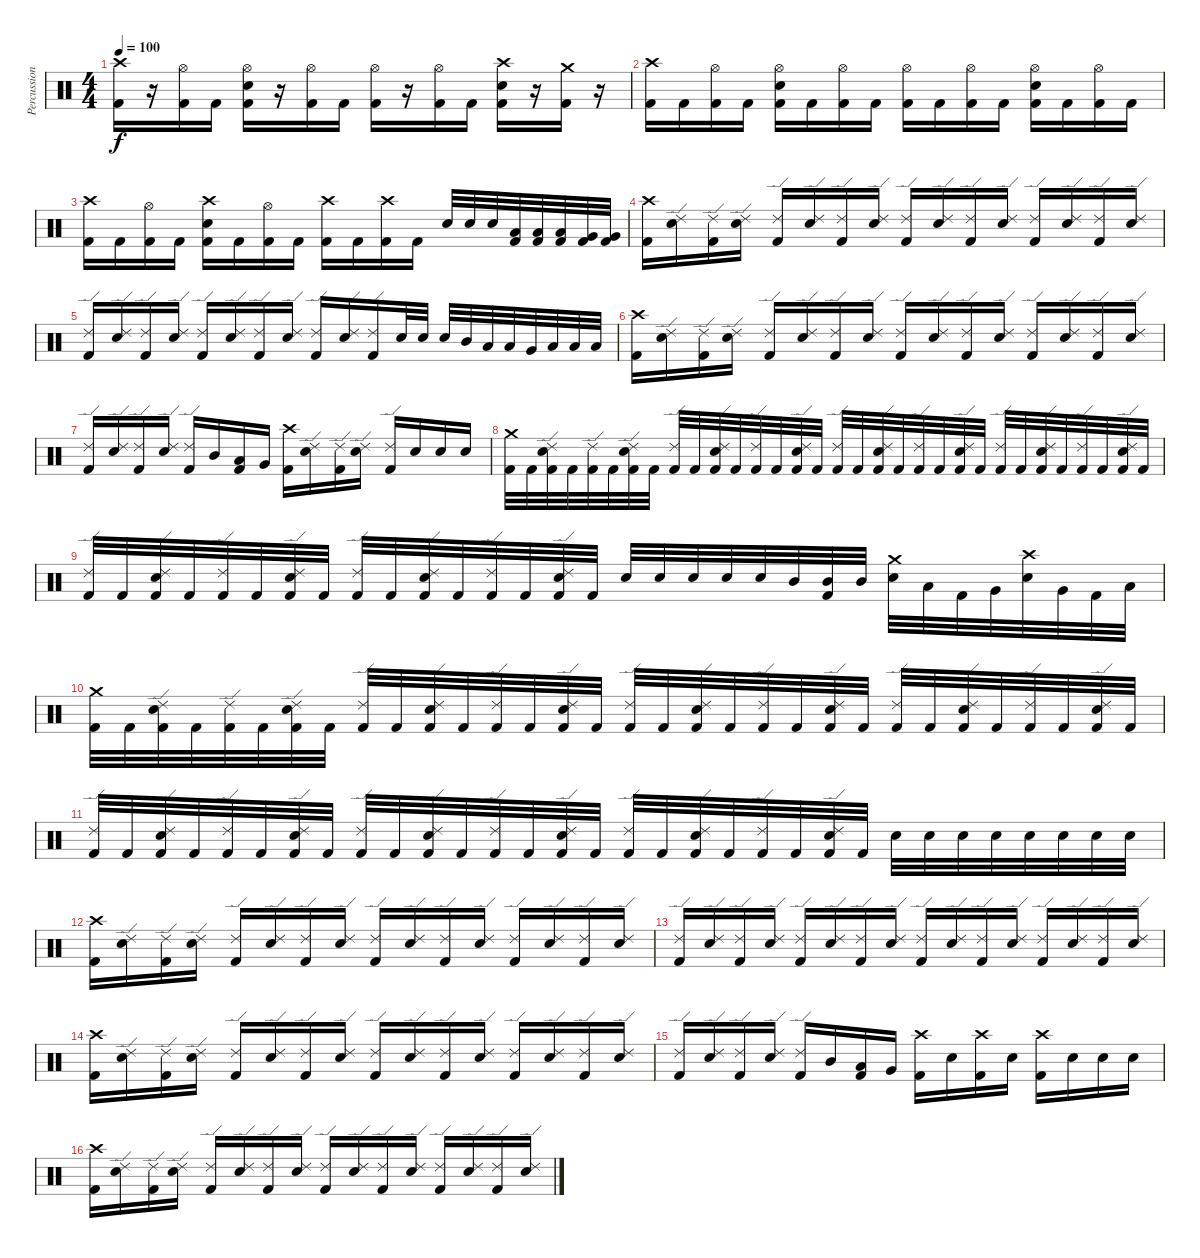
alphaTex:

\track ("Percussion" "Percussion") {instrument percussion}
\staff {score}
\articulation defaults
\ts (4 4)
\tempo 100
\clef neutral
\ks c
("Crash high (hit)" "Kick (hit) 2").16{dy f} r.16 ("Hi-Hat (open)" "Kick (hit) 2").16 "Kick (hit) 2".16 ("Hi-Hat (open)" "Snare (hit) 2" "Kick (hit) 2").16 r.16 ("Hi-Hat (open)" "Kick (hit) 2").16 "Kick (hit) 2".16 ("Hi-Hat (open)" "Kick (hit) 2").16 r.16 ("Hi-Hat (open)" "Kick (hit) 2").16 "Kick (hit) 2".16 ("Crash high (hit)" "Snare (hit) 2" "Kick (hit) 2").16 r.16 ("Crash medium (hit)" "Kick (hit) 2").16 r.16 |
("Crash high (hit)" "Kick (hit) 2").16 "Kick (hit) 2".16 ("Hi-Hat (open)" "Kick (hit) 2").16 "Kick (hit) 2".16 ("Hi-Hat (open)" "Snare (hit) 2" "Kick (hit) 2").16 "Kick (hit) 2".16 ("Hi-Hat (open)" "Kick (hit) 2").16 "Kick (hit) 2".16 ("Hi-Hat (open)" "Kick (hit) 2").16 "Kick (hit) 2".16 ("Hi-Hat (open)" "Kick (hit) 2").16 "Kick (hit) 2".16 ("Hi-Hat (open)" "Snare (hit) 2" "Kick (hit) 2").16 "Kick (hit) 2".16 ("Hi-Hat (open)" "Kick (hit) 2").16 "Kick (hit) 2".16 |
("Crash high (hit)" "Kick (hit) 2").16 "Kick (hit) 2".16 ("Hi-Hat (open)" "Kick (hit) 2").16 "Kick (hit) 2".16 ("Crash high (hit)" "Snare (hit) 2" "Kick (hit) 2").16 "Kick (hit) 2".16 ("Hi-Hat (open)" "Kick (hit) 2").16 "Kick (hit) 2".16 ("Crash high (hit)" "Kick (hit) 2").16 "Kick (hit) 2".16 ("Crash high (hit)" "Kick (hit) 2").16 "Kick (hit) 2".16 "Snare (hit) 2".32 "Snare (hit) 2".32 "Snare (hit) 2".32 ("Low Tom (hit)" "Kick (hit) 2").32 ("Low Tom (hit)" "Kick (hit) 2").32 ("Low Tom (hit)" "Kick (hit) 2").32 ("Very Low Tom (hit)" "Kick (hit) 2").32 ("Very Low Tom (hit)" "Kick (hit) 2").32 |
("Crash high (hit)" "Kick (hit) 2").16 ("Ride (edge) 2" "Snare (hit) 2").16 ("Ride (edge) 2" "Kick (hit) 2").16 ("Ride (edge) 2" "Snare (hit) 2").16 ("Ride (edge) 2" "Kick (hit) 2").16 ("Ride (edge) 2" "Snare (hit) 2").16 ("Ride (edge) 2" "Kick (hit) 2").16 ("Ride (edge) 2" "Snare (hit) 2").16 ("Ride (edge) 2" "Kick (hit) 2").16 ("Ride (edge) 2" "Snare (hit) 2").16 ("Ride (edge) 2" "Kick (hit) 2").16 ("Ride (edge) 2" "Snare (hit) 2").16 ("Ride (edge) 2" "Kick (hit) 2").16 ("Ride (edge) 2" "Snare (hit) 2").16 ("Ride (edge) 2" "Kick (hit) 2").16 ("Ride (edge) 2" "Snare (hit) 2").16 |
("Ride (edge) 2" "Kick (hit) 2").16 ("Ride (edge) 2" "Snare (hit) 2").16 ("Ride (edge) 2" "Kick (hit) 2").16 ("Ride (edge) 2" "Snare (hit) 2").16 ("Ride (edge) 2" "Kick (hit) 2").16 ("Ride (edge) 2" "Snare (hit) 2").16 ("Ride (edge) 2" "Kick (hit) 2").16 ("Ride (edge) 2" "Snare (hit) 2").16 ("Ride (edge) 2" "Kick (hit) 2").16 ("Ride (edge) 2" "Snare (hit) 2").16 ("Ride (edge) 2" "Kick (hit) 2").16 "Snare (hit) 2".32 "Snare (hit) 2".32 "Snare (hit) 2".32 "Mid Tom (hit)".32 "Low Tom (hit)".32 "Low Tom (hit)".32 "Very Low Tom (hit)".32 "Low Floor Tom (hit)".32 "Low Floor Tom (hit)".32 "Low Floor Tom (hit)".32 |
("Crash high (hit)" "Kick (hit) 2").16 ("Ride (edge) 2" "Snare (hit) 2").16 ("Ride (edge) 2" "Kick (hit) 2").16 ("Ride (edge) 2" "Snare (hit) 2").16 ("Ride (edge) 2" "Kick (hit) 2").16 ("Ride (edge) 2" "Snare (hit) 2").16 ("Ride (edge) 2" "Kick (hit) 2").16 ("Ride (edge) 2" "Snare (hit) 2").16 ("Ride (edge) 2" "Kick (hit) 2").16 ("Ride (edge) 2" "Snare (hit) 2").16 ("Ride (edge) 2" "Kick (hit) 2").16 ("Ride (edge) 2" "Snare (hit) 2").16 ("Ride (edge) 2" "Kick (hit) 2").16 ("Ride (edge) 2" "Snare (hit) 2").16 ("Ride (edge) 2" "Kick (hit) 2").16 ("Ride (edge) 2" "Snare (hit) 2").16 |
("Ride (edge) 2" "Kick (hit) 2").16 ("Ride (edge) 2" "Snare (hit) 2").16 ("Ride (edge) 2" "Kick (hit) 2").16 ("Ride (edge) 2" "Snare (hit) 2").16 ("Ride (edge) 2" "Kick (hit) 2").16 "Mid Tom (hit)".16 ("Low Tom (hit)" "Kick (hit) 2").16 "Very Low Tom (hit)".16 ("Crash high (hit)" "Kick (hit) 2").16 ("Ride (edge) 2" "Snare (hit) 2").16 ("Ride (edge) 2" "Kick (hit) 2").16 ("Ride (edge) 2" "Snare (hit) 2").16 ("Ride (edge) 2" "Kick (hit) 2").16 "Snare (hit) 2".16 "Snare (hit) 2".16 "Snare (hit) 2".16 |
("Crash medium (hit)" "Kick (hit) 2").32 "Kick (hit) 2".32 ("Ride (edge) 2" "Snare (hit) 2" "Kick (hit) 2").32 "Kick (hit) 2".32 ("Ride (edge) 2" "Kick (hit) 2").32 "Kick (hit) 2".32 ("Ride (edge) 2" "Snare (hit) 2" "Kick (hit) 2").32 "Kick (hit) 2".32 ("Ride (edge) 2" "Kick (hit) 2").32 "Kick (hit) 2".32 ("Ride (edge) 2" "Snare (hit) 2" "Kick (hit) 2").32 "Kick (hit) 2".32 ("Ride (edge) 2" "Kick (hit) 2").32 "Kick (hit) 2".32 ("Ride (edge) 2" "Snare (hit) 2" "Kick (hit) 2").32 "Kick (hit) 2".32 ("Ride (edge) 2" "Kick (hit) 2").32 "Kick (hit) 2".32 ("Ride (edge) 2" "Snare (hit) 2" "Kick (hit) 2").32 "Kick (hit) 2".32 ("Ride (edge) 2" "Kick (hit) 2").32 "Kick (hit) 2".32 ("Ride (edge) 2" "Snare (hit) 2" "Kick (hit) 2").32 "Kick (hit) 2".32 ("Ride (edge) 2" "Kick (hit) 2").32 "Kick (hit) 2".32 ("Ride (edge) 2" "Snare (hit) 2" "Kick (hit) 2").32 "Kick (hit) 2".32 ("Ride (edge) 2" "Kick (hit) 2").32 "Kick (hit) 2".32 ("Ride (edge) 2" "Snare (hit) 2" "Kick (hit) 2").32 "Kick (hit) 2".32 |
("Ride (edge) 2" "Kick (hit) 2").32 "Kick (hit) 2".32 ("Ride (edge) 2" "Snare (hit) 2" "Kick (hit) 2").32 "Kick (hit) 2".32 ("Ride (edge) 2" "Kick (hit) 2").32 "Kick (hit) 2".32 ("Ride (edge) 2" "Snare (hit) 2" "Kick (hit) 2").32 "Kick (hit) 2".32 ("Ride (edge) 2" "Kick (hit) 2").32 "Kick (hit) 2".32 ("Ride (edge) 2" "Snare (hit) 2" "Kick (hit) 2").32 "Kick (hit) 2".32 ("Ride (edge) 2" "Kick (hit) 2").32 "Kick (hit) 2".32 ("Ride (edge) 2" "Snare (hit) 2" "Kick (hit) 2").32 "Kick (hit) 2".32 "Snare (hit) 2".32 "Snare (hit) 2".32 "Snare (hit) 2".32 "Snare (hit) 2".32 "Snare (hit) 2".32 "Mid Tom (hit)".32 ("Mid Tom (hit)" "Kick (hit) 2").32 "Mid Tom (hit)".32 ("Crash medium (hit)" "Snare (hit) 2").32 "Low Tom (hit)".32 "Kick (hit) 2".32 "Very Low Tom (hit)".32 ("Crash high (hit)" "Snare (hit) 2").32 "Very Low Tom (hit)".32 "Kick (hit) 2".32 "Low Floor Tom (hit)".32 |
("Crash medium (hit)" "Kick (hit) 2").32 "Kick (hit) 2".32 ("Ride (edge) 2" "Snare (hit) 2" "Kick (hit) 2").32 "Kick (hit) 2".32 ("Ride (edge) 2" "Kick (hit) 2").32 "Kick (hit) 2".32 ("Ride (edge) 2" "Snare (hit) 2" "Kick (hit) 2").32 "Kick (hit) 2".32 ("Ride (edge) 2" "Kick (hit) 2").32 "Kick (hit) 2".32 ("Ride (edge) 2" "Snare (hit) 2" "Kick (hit) 2").32 "Kick (hit) 2".32 ("Ride (edge) 2" "Kick (hit) 2").32 "Kick (hit) 2".32 ("Ride (edge) 2" "Snare (hit) 2" "Kick (hit) 2").32 "Kick (hit) 2".32 ("Ride (edge) 2" "Kick (hit) 2").32 "Kick (hit) 2".32 ("Ride (edge) 2" "Snare (hit) 2" "Kick (hit) 2").32 "Kick (hit) 2".32 ("Ride (edge) 2" "Kick (hit) 2").32 "Kick (hit) 2".32 ("Ride (edge) 2" "Snare (hit) 2" "Kick (hit) 2").32 "Kick (hit) 2".32 ("Ride (edge) 2" "Kick (hit) 2").32 "Kick (hit) 2".32 ("Ride (edge) 2" "Snare (hit) 2" "Kick (hit) 2").32 "Kick (hit) 2".32 ("Ride (edge) 2" "Kick (hit) 2").32 "Kick (hit) 2".32 ("Ride (edge) 2" "Snare (hit) 2" "Kick (hit) 2").32 "Kick (hit) 2".32 |
("Ride (edge) 2" "Kick (hit) 2").32 "Kick (hit) 2".32 ("Ride (edge) 2" "Snare (hit) 2" "Kick (hit) 2").32 "Kick (hit) 2".32 ("Ride (edge) 2" "Kick (hit) 2").32 "Kick (hit) 2".32 ("Ride (edge) 2" "Snare (hit) 2" "Kick (hit) 2").32 "Kick (hit) 2".32 ("Ride (edge) 2" "Kick (hit) 2").32 "Kick (hit) 2".32 ("Ride (edge) 2" "Snare (hit) 2" "Kick (hit) 2").32 "Kick (hit) 2".32 ("Ride (edge) 2" "Kick (hit) 2").32 "Kick (hit) 2".32 ("Ride (edge) 2" "Snare (hit) 2" "Kick (hit) 2").32 "Kick (hit) 2".32 ("Ride (edge) 2" "Kick (hit) 2").32 "Kick (hit) 2".32 ("Ride (edge) 2" "Snare (hit) 2" "Kick (hit) 2").32 "Kick (hit) 2".32 ("Ride (edge) 2" "Kick (hit) 2").32 "Kick (hit) 2".32 ("Ride (edge) 2" "Snare (hit) 2" "Kick (hit) 2").32 "Kick (hit) 2".32 "Snare (hit) 2".32 "Snare (hit) 2".32 "Snare (hit) 2".32 "Snare (hit) 2".32 "Snare (hit) 2".32 "Snare (hit) 2".32 "Snare (hit) 2".32 "Snare (hit) 2".32 |
("Crash high (hit)" "Kick (hit) 2").16 ("Ride (edge) 2" "Snare (hit) 2").16 ("Ride (edge) 2" "Kick (hit) 2").16 ("Ride (edge) 2" "Snare (hit) 2").16 ("Ride (edge) 2" "Kick (hit) 2").16 ("Ride (edge) 2" "Snare (hit) 2").16 ("Ride (edge) 2" "Kick (hit) 2").16 ("Ride (edge) 2" "Snare (hit) 2").16 ("Ride (edge) 2" "Kick (hit) 2").16 ("Ride (edge) 2" "Snare (hit) 2").16 ("Ride (edge) 2" "Kick (hit) 2").16 ("Ride (edge) 2" "Snare (hit) 2").16 ("Ride (edge) 2" "Kick (hit) 2").16 ("Ride (edge) 2" "Snare (hit) 2").16 ("Ride (edge) 2" "Kick (hit) 2").16 ("Ride (edge) 2" "Snare (hit) 2").16 |
("Ride (edge) 2" "Kick (hit) 2").16 ("Ride (edge) 2" "Snare (hit) 2").16 ("Ride (edge) 2" "Kick (hit) 2").16 ("Ride (edge) 2" "Snare (hit) 2").16 ("Ride (edge) 2" "Kick (hit) 2").16 ("Ride (edge) 2" "Snare (hit) 2").16 ("Ride (edge) 2" "Kick (hit) 2").16 ("Ride (edge) 2" "Snare (hit) 2").16 ("Ride (edge) 2" "Kick (hit) 2").16 ("Ride (edge) 2" "Snare (hit) 2").16 ("Ride (edge) 2" "Kick (hit) 2").16 ("Ride (edge) 2" "Snare (hit) 2").16 ("Ride (edge) 2" "Kick (hit) 2").16 ("Ride (edge) 2" "Snare (hit) 2").16 ("Ride (edge) 2" "Kick (hit) 2").16 ("Ride (edge) 2" "Snare (hit) 2").16 |
("Crash high (hit)" "Kick (hit) 2").16 ("Ride (edge) 2" "Snare (hit) 2").16 ("Ride (edge) 2" "Kick (hit) 2").16 ("Ride (edge) 2" "Snare (hit) 2").16 ("Ride (edge) 2" "Kick (hit) 2").16 ("Ride (edge) 2" "Snare (hit) 2").16 ("Ride (edge) 2" "Kick (hit) 2").16 ("Ride (edge) 2" "Snare (hit) 2").16 ("Ride (edge) 2" "Kick (hit) 2").16 ("Ride (edge) 2" "Snare (hit) 2").16 ("Ride (edge) 2" "Kick (hit) 2").16 ("Ride (edge) 2" "Snare (hit) 2").16 ("Ride (edge) 2" "Kick (hit) 2").16 ("Ride (edge) 2" "Snare (hit) 2").16 ("Ride (edge) 2" "Kick (hit) 2").16 ("Ride (edge) 2" "Snare (hit) 2").16 |
("Ride (edge) 2" "Kick (hit) 2").16 ("Ride (edge) 2" "Snare (hit) 2").16 ("Ride (edge) 2" "Kick (hit) 2").16 ("Ride (edge) 2" "Snare (hit) 2").16 ("Ride (edge) 2" "Kick (hit) 2").16 "Mid Tom (hit)".16 ("Low Tom (hit)" "Kick (hit) 2").16 "Very Low Tom (hit)".16 ("Crash high (hit)" "Kick (hit) 2").16 "Snare (hit) 2".16 ("Crash high (hit)" "Kick (hit) 2").16 "Snare (hit) 2".16 ("Crash high (hit)" "Kick (hit) 2").16 "Snare (hit) 2".16 "Snare (hit) 2".16 "Snare (hit) 2".16 |
("Crash high (hit)" "Kick (hit) 2").16 ("Ride (edge) 2" "Snare (hit) 2").16 ("Ride (edge) 2" "Kick (hit) 2").16 ("Ride (edge) 2" "Snare (hit) 2").16 ("Ride (edge) 2" "Kick (hit) 2").16 ("Ride (edge) 2" "Snare (hit) 2").16 ("Ride (edge) 2" "Kick (hit) 2").16 ("Ride (edge) 2" "Snare (hit) 2").16 ("Ride (edge) 2" "Kick (hit) 2").16 ("Ride (edge) 2" "Snare (hit) 2").16 ("Ride (edge) 2" "Kick (hit) 2").16 ("Ride (edge) 2" "Snare (hit) 2").16 ("Ride (edge) 2" "Kick (hit) 2").16 ("Ride (edge) 2" "Snare (hit) 2").16 ("Ride (edge) 2" "Kick (hit) 2").16 ("Ride (edge) 2" "Snare (hit) 2").16
